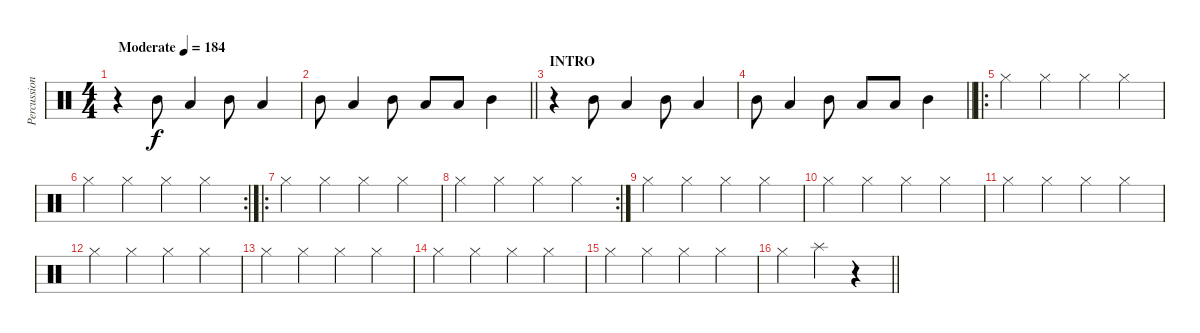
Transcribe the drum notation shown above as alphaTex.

\track ("Percussions" "Percussion") {instrument percussion}
\staff {score}
\articulation defaults
\ts (4 4)
\tempo (184 "Moderate")
\clef neutral
\ks c
r.4{dy f} "Mid Tom (hit)".8 "Low Tom (hit)".4 "Mid Tom (hit)".8 "Low Tom (hit)".4 |
\barLineRight lightlight "Mid Tom (hit)".8 "Low Tom (hit)".4 "Mid Tom (hit)".8 "Low Tom (hit)".8 "Low Tom (hit)".8 "Mid Tom (hit)".4
|
\section ("" "INTRO")
r.4 "Mid Tom (hit)".8 "Low Tom (hit)".4 "Mid Tom (hit)".8 "Low Tom (hit)".4 |
\barLineRight lightlight "Mid Tom (hit)".8 "Low Tom (hit)".4 "Mid Tom (hit)".8 "Low Tom (hit)".8 "Low Tom (hit)".8 "Mid Tom (hit)".4
|
\ro "Hi-Hat (closed)".4 "Hi-Hat (closed)".4 "Hi-Hat (closed)".4 "Hi-Hat (closed)".4
|
\rc 2 "Hi-Hat (closed)".4 "Hi-Hat (closed)".4 "Hi-Hat (closed)".4 "Hi-Hat (closed)".4
|
\ro "Hi-Hat (closed)".4 "Hi-Hat (closed)".4 "Hi-Hat (closed)".4 "Hi-Hat (closed)".4
|
\rc 2 "Hi-Hat (closed)".4 "Hi-Hat (closed)".4 "Hi-Hat (closed)".4 "Hi-Hat (closed)".4
|
"Hi-Hat (closed)".4 "Hi-Hat (closed)".4 "Hi-Hat (closed)".4 "Hi-Hat (closed)".4 |
"Hi-Hat (closed)".4 "Hi-Hat (closed)".4 "Hi-Hat (closed)".4 "Hi-Hat (closed)".4 |
"Hi-Hat (closed)".4 "Hi-Hat (closed)".4 "Hi-Hat (closed)".4 "Hi-Hat (closed)".4 |
"Hi-Hat (closed)".4 "Hi-Hat (closed)".4 "Hi-Hat (closed)".4 "Hi-Hat (closed)".4 |
"Hi-Hat (closed)".4 "Hi-Hat (closed)".4 "Hi-Hat (closed)".4 "Hi-Hat (closed)".4 |
"Hi-Hat (closed)".4 "Hi-Hat (closed)".4 "Hi-Hat (closed)".4 "Hi-Hat (closed)".4 |
"Hi-Hat (closed)".4 "Hi-Hat (closed)".4 "Hi-Hat (closed)".4 "Hi-Hat (closed)".4 |
\barLineRight lightlight "Hi-Hat (closed)".4 "Splash (hit)".4
r.4
